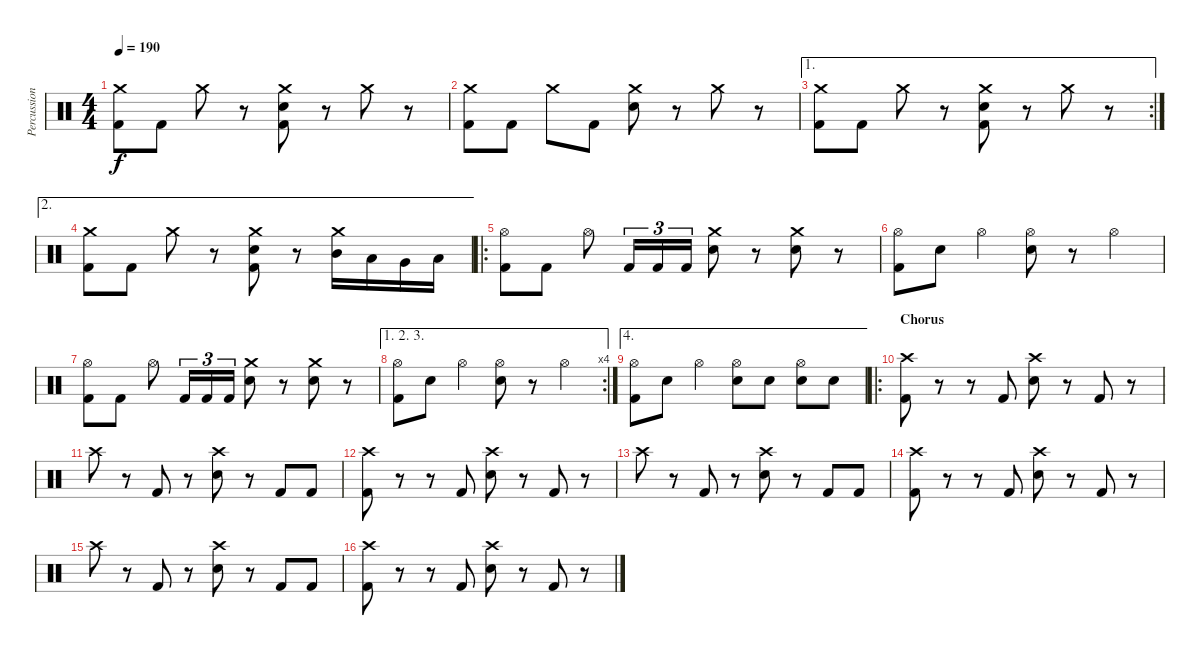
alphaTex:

\track ("Percussion" "Percussion") {instrument percussion}
\staff {score}
\articulation defaults
\ts (4 4)
\tempo 190
\clef neutral
\ks c
("Crash medium (hit)" "Kick (hit) 2").8{dy f} "Kick (hit) 2".8 "Crash medium (hit)".8 r.8 ("Crash medium (hit)" "Electric Snare (hit)" "Kick (hit) 2").8 r.8 "Crash medium (hit)".8 r.8 |
("Crash medium (hit)" "Kick (hit) 2").8 "Kick (hit) 2".8 "Crash medium (hit)".8 "Kick (hit) 2".8 ("Crash medium (hit)" "Electric Snare (hit)").8 r.8 "Crash medium (hit)".8 r.8 |
\ae 1
\rc 2
("Crash medium (hit)" "Kick (hit) 2").8 "Kick (hit) 2".8 "Crash medium (hit)".8 r.8 ("Crash medium (hit)" "Electric Snare (hit)" "Kick (hit) 2").8 r.8 "Crash medium (hit)".8 r.8 |
\ae 2
("Crash medium (hit)" "Kick (hit) 2").8 "Kick (hit) 2".8 "Crash medium (hit)".8 r.8 ("Crash medium (hit)" "Electric Snare (hit)" "Kick (hit) 2").8 r.8 ("Crash medium (hit)" "Mid Tom (hit)").16 "Low Tom (hit)".16 "Very Low Tom (hit)".16 "Low Floor Tom (hit)".16 |
\ro
("Hi-Hat (open)" "Kick (hit) 2").8 "Kick (hit) 2".8 "Hi-Hat (open)".8 "Kick (hit) 2".16{tu (3 2)} "Kick (hit) 2".16{tu (3 2)} "Kick (hit) 2".16{tu (3 2)} ("Crash medium (hit)" "Electric Snare (hit)").8 r.8 ("Crash medium (hit)" "Electric Snare (hit)").8 r.8 |
("Hi-Hat (open)" "Kick (hit) 2").8 "Electric Snare (hit)".8 "Hi-Hat (open)".4 ("Hi-Hat (open)" "Electric Snare (hit)").8 r.8 "Hi-Hat (open)".4 |
("Hi-Hat (open)" "Kick (hit) 2").8 "Kick (hit) 2".8 "Hi-Hat (open)".8 "Kick (hit) 2".16{tu (3 2)} "Kick (hit) 2".16{tu (3 2)} "Kick (hit) 2".16{tu (3 2)} ("Crash medium (hit)" "Electric Snare (hit)").8 r.8 ("Crash medium (hit)" "Electric Snare (hit)").8 r.8 |
\ae (1 2 3)
\rc 4
("Hi-Hat (open)" "Kick (hit) 2").8 "Electric Snare (hit)".8 "Hi-Hat (open)".4 ("Hi-Hat (open)" "Electric Snare (hit)").8 r.8 "Hi-Hat (open)".4 |
\ae 4
("Hi-Hat (open)" "Kick (hit) 2").8 "Electric Snare (hit)".8 "Hi-Hat (open)".4 ("Hi-Hat (open)" "Electric Snare (hit)").8 "Electric Snare (hit)".8 ("Hi-Hat (open)" "Electric Snare (hit)").8 "Electric Snare (hit)".8 |
\ro
\section ("" "Chorus")
("Crash high (hit)" "Kick (hit) 2").8 r.8 r.8 "Kick (hit) 2".8 ("Crash high (hit)" "Electric Snare (hit)").8 r.8 "Kick (hit) 2".8 r.8 |
"Crash high (hit)".8 r.8 "Kick (hit) 2".8 r.8 ("Crash high (hit)" "Electric Snare (hit)").8 r.8 "Kick (hit) 2".8 "Kick (hit) 2".8 |
("Crash high (hit)" "Kick (hit) 2").8 r.8 r.8 "Kick (hit) 2".8 ("Crash high (hit)" "Electric Snare (hit)").8 r.8 "Kick (hit) 2".8 r.8 |
"Crash high (hit)".8 r.8 "Kick (hit) 2".8 r.8 ("Crash high (hit)" "Electric Snare (hit)").8 r.8 "Kick (hit) 2".8 "Kick (hit) 2".8 |
("Crash high (hit)" "Kick (hit) 2").8 r.8 r.8 "Kick (hit) 2".8 ("Crash high (hit)" "Electric Snare (hit)").8 r.8 "Kick (hit) 2".8 r.8 |
"Crash high (hit)".8 r.8 "Kick (hit) 2".8 r.8 ("Crash high (hit)" "Electric Snare (hit)").8 r.8 "Kick (hit) 2".8 "Kick (hit) 2".8 |
("Crash high (hit)" "Kick (hit) 2").8 r.8 r.8 "Kick (hit) 2".8 ("Crash high (hit)" "Electric Snare (hit)").8 r.8 "Kick (hit) 2".8 r.8
